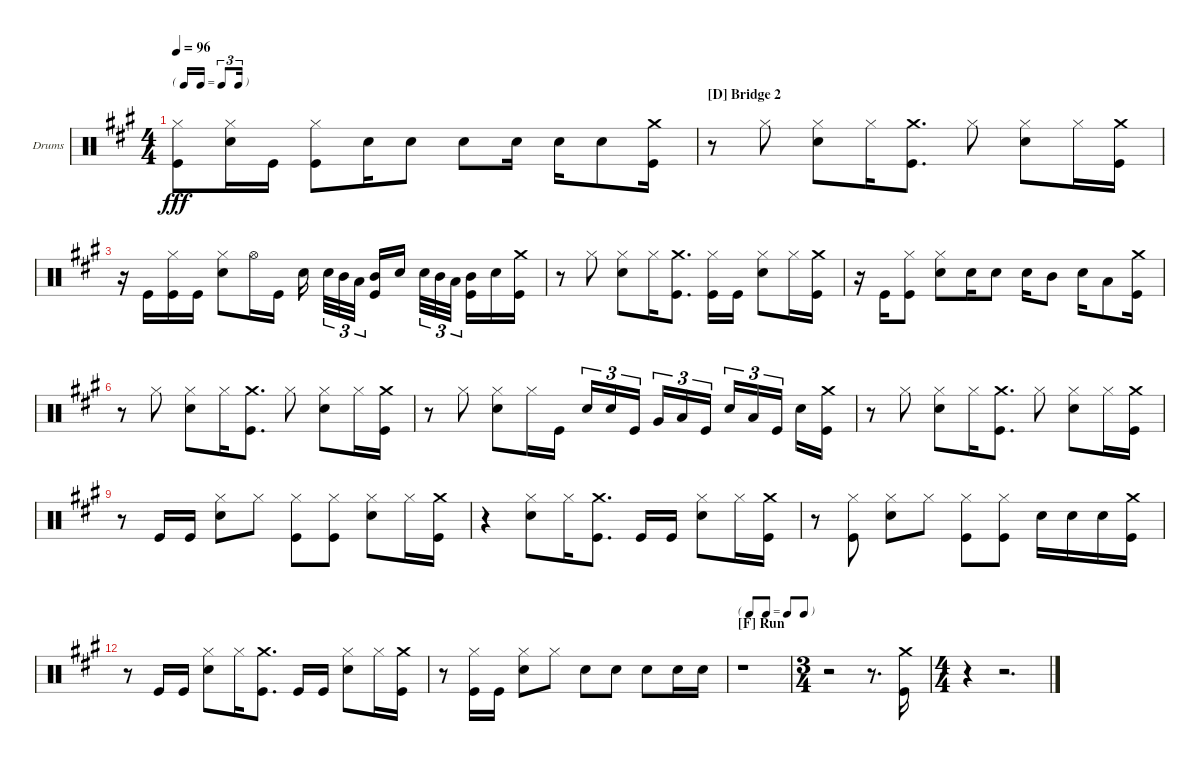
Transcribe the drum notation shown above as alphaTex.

\bracketExtendMode nobrackets
\firstSystemTrackNameOrientation horizontal
\otherSystemsTrackNameOrientation horizontal
\defaultBarNumberDisplay FirstOfSystem
\track ("Drumkit" "Drums") {instrument percussion}
\staff {score}
\articulation defaults
\ts (4 4)
\tf triplet16th
\tempo 96
\clef neutral
\ks a
("Kick (hit)" "Hi-Hat (closed)").8{dy fff} ("Snare (hit) 2" "Hi-Hat (closed)").16 "Kick (hit)".16 ("Kick (hit)" "Hi-Hat (closed)").8 "Snare (hit) 2".16 "Snare (hit) 2".8 "Snare (hit) 2".8 "Snare (hit) 2".16 "Snare (hit) 2".16 "Snare (hit) 2".8 ("Crash medium (hit)" "Kick (hit)").16 |
\section ("D" "Bridge 2")
r.8 "Hi-Hat (closed)".8 ("Snare (hit) 2" "Hi-Hat (closed)").8 "Hi-Hat (closed)".16 ("Kick (hit)" "Crash medium (hit)").8{d} "Hi-Hat (closed)".8 ("Snare (hit) 2" "Hi-Hat (closed)").8 "Hi-Hat (closed)".16 ("Kick (hit)" "Crash medium (hit)").16 |
r.16 "Kick (hit)".16 ("Hi-Hat (closed)" "Kick (hit)").16 "Kick (hit)".16 ("Snare (hit) 2" "Hi-Hat (closed)").8 "Hi-Hat (open)".16 "Kick (hit)".16 "Snare (hit) 2".16 "Snare (hit) 2".32{tu (3 2)} "Mid Tom (hit)".32{tu (3 2)} "Low Tom (hit)".32{tu (3 2)} ("Kick (hit)" "Mid Tom (hit)").16 "Snare (hit) 2".16 "Snare (hit) 2".32{tu (3 2)} "Mid Tom (hit)".32{tu (3 2)} "Low Tom (hit)".32{tu (3 2)} ("Mid Tom (hit)" "Kick (hit)").16 "Snare (hit) 2".16 ("Crash medium (hit)" "Kick (hit)").16 |
r.8 "Hi-Hat (closed)".8 ("Snare (hit) 2" "Hi-Hat (closed)").8 "Hi-Hat (closed)".16 ("Kick (hit)" "Crash medium (hit)").8{d} ("Kick (hit)" "Hi-Hat (closed)").16 "Kick (hit)".16 ("Snare (hit) 2" "Hi-Hat (closed)").8 "Hi-Hat (closed)".16 ("Kick (hit)" "Crash medium (hit)").16 |
r.16 "Kick (hit)".16 ("Hi-Hat (closed)" "Kick (hit)").8 ("Hi-Hat (closed)" "Snare (hit) 2").8 "Snare (hit) 2".16 "Snare (hit) 2".8 "Snare (hit) 2".16 "Mid Tom (hit)".8 "Snare (hit) 2".16 "Low Tom (hit)".8 ("Crash medium (hit)" "Kick (hit)").16 |
r.8 "Hi-Hat (closed)".8 ("Snare (hit) 2" "Hi-Hat (closed)").8 "Hi-Hat (closed)".16 ("Crash medium (hit)" "Kick (hit)").8{d} "Hi-Hat (closed)".8 ("Snare (hit) 2" "Hi-Hat (closed)").8 "Hi-Hat (closed)".16 ("Kick (hit)" "Crash medium (hit)").16 |
r.8 "Hi-Hat (closed)".8 ("Snare (hit) 2" "Hi-Hat (closed)").8 "Hi-Hat (closed)".16 "Kick (hit)".16 "Snare (hit) 2".16{tu (3 2)} "Snare (hit) 2".16{tu (3 2)} "Kick (hit)".16{tu (3 2)} "Very Low Tom (hit)".16{tu (3 2)} "Low Tom (hit)".16{tu (3 2)} "Kick (hit)".16{tu (3 2)} "Snare (hit) 2".16{tu (3 2)} "Low Tom (hit)".16{tu (3 2)} "Kick (hit)".16{tu (3 2)} "Snare (hit) 2".16 ("Crash medium (hit)" "Kick (hit)").16 |
r.8 "Hi-Hat (closed)".8 ("Snare (hit) 2" "Hi-Hat (closed)").8 "Hi-Hat (closed)".16 ("Crash medium (hit)" "Kick (hit)").8{d} "Hi-Hat (closed)".8 ("Snare (hit) 2" "Hi-Hat (closed)").8 "Hi-Hat (closed)".16 ("Kick (hit)" "Crash medium (hit)").16 |
r.8 "Kick (hit)".16 "Kick (hit)".16 ("Snare (hit) 2" "Hi-Hat (closed)").8 "Hi-Hat (closed)".8 ("Kick (hit)" "Hi-Hat (closed)").8 ("Kick (hit)" "Hi-Hat (closed)").8 ("Snare (hit) 2" "Hi-Hat (closed)").8 "Hi-Hat (closed)".16 ("Kick (hit)" "Crash medium (hit)").16 |
r.4 ("Snare (hit) 2" "Hi-Hat (closed)").8 "Hi-Hat (closed)".16 ("Kick (hit)" "Crash medium (hit)").8{d} "Kick (hit)".16 "Kick (hit)".16 ("Snare (hit) 2" "Hi-Hat (closed)").8 "Hi-Hat (closed)".16 ("Kick (hit)" "Crash medium (hit)").16 |
r.8 ("Kick (hit)" "Hi-Hat (closed)").8 ("Snare (hit) 2" "Hi-Hat (closed)").8 "Hi-Hat (closed)".8 ("Kick (hit)" "Hi-Hat (closed)").8 ("Kick (hit)" "Hi-Hat (closed)").8 "Snare (hit) 2".16 "Snare (hit) 2".16 "Snare (hit) 2".16 ("Kick (hit)" "Crash medium (hit)").16 |
r.8 "Kick (hit)".16 "Kick (hit)".16 ("Snare (hit) 2" "Hi-Hat (closed)").8 "Hi-Hat (closed)".16 ("Kick (hit)" "Crash medium (hit)").8{d} "Kick (hit)".16 "Kick (hit)".16 ("Snare (hit) 2" "Hi-Hat (closed)").8 "Hi-Hat (closed)".16 ("Kick (hit)" "Crash medium (hit)").16 |
r.8 ("Kick (hit)" "Hi-Hat (closed)").16 "Kick (hit)".16 ("Snare (hit) 2" "Hi-Hat (closed)").8 "Hi-Hat (closed)".8 "Snare (hit) 2".8 "Snare (hit) 2".8 "Snare (hit) 2".8 "Snare (hit) 2".16 "Snare (hit) 2".16 |
\tf none
\section ("F" "Run")
r.1 |
\ts (3 4)
r.2 r.8{d} ("Crash medium (hit)" "Kick (hit)").16 |
\ts (4 4)
r.4 r.2{d}
